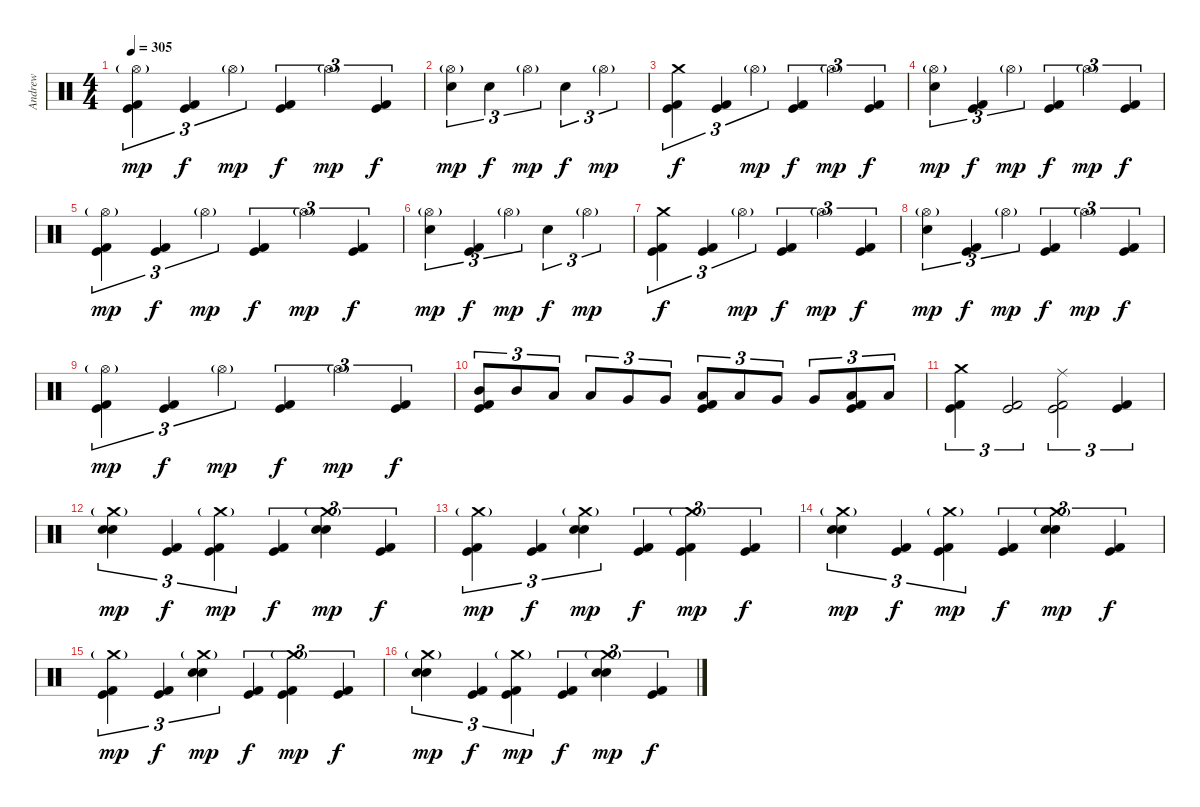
\track ("Andrew" "Andrew") {instrument percussion}
\staff {score}
\articulation defaults
\ts (4 4)
\tempo 305
\clef neutral
\ks c
("Hi-Hat (open)"{g} "Kick (hit)" "Kick (hit) 2").4{tu (3 2) dy mp} ("Kick (hit)" "Kick (hit) 2").4{tu (3 2) dy f} "Hi-Hat (open)"{g}.4{tu (3 2) dy mp} ("Kick (hit)" "Kick (hit) 2").4{tu (3 2) dy f} "Hi-Hat (open)"{g}.4{tu (3 2) dy mp} ("Kick (hit)" "Kick (hit) 2").4{tu (3 2) dy f} |
("Hi-Hat (open)"{g} "Snare (hit) 2").4{tu (3 2) dy mp} "Snare (hit) 2".4{tu (3 2) dy f} "Hi-Hat (open)"{g}.4{tu (3 2) dy mp} "Snare (hit) 2".4{tu (3 2) dy f} "Hi-Hat (open)"{g}.2{tu (3 2) dy mp} |
("Crash medium (hit)" "Kick (hit)" "Kick (hit) 2").4{tu (3 2) dy f} ("Kick (hit)" "Kick (hit) 2").4{tu (3 2)} "Hi-Hat (open)"{g}.4{tu (3 2) dy mp} ("Kick (hit)" "Kick (hit) 2").4{tu (3 2) dy f} "Hi-Hat (open)"{g}.4{tu (3 2) dy mp} ("Kick (hit)" "Kick (hit) 2").4{tu (3 2) dy f} |
("Hi-Hat (open)"{g} "Snare (hit) 2").4{tu (3 2) dy mp} ("Kick (hit)" "Kick (hit) 2").4{tu (3 2) dy f} "Hi-Hat (open)"{g}.4{tu (3 2) dy mp} ("Kick (hit)" "Kick (hit) 2").4{tu (3 2) dy f} "Hi-Hat (open)"{g}.4{tu (3 2) dy mp} ("Kick (hit)" "Kick (hit) 2").4{tu (3 2) dy f} |
("Hi-Hat (open)"{g} "Kick (hit)" "Kick (hit) 2").4{tu (3 2) dy mp} ("Kick (hit)" "Kick (hit) 2").4{tu (3 2) dy f} "Hi-Hat (open)"{g}.4{tu (3 2) dy mp} ("Kick (hit)" "Kick (hit) 2").4{tu (3 2) dy f} "Hi-Hat (open)"{g}.4{tu (3 2) dy mp} ("Kick (hit)" "Kick (hit) 2").4{tu (3 2) dy f} |
("Hi-Hat (open)"{g} "Snare (hit) 2").4{tu (3 2) dy mp} ("Kick (hit)" "Kick (hit) 2").4{tu (3 2) dy f} "Hi-Hat (open)"{g}.4{tu (3 2) dy mp} "Snare (hit) 2".4{tu (3 2) dy f} "Hi-Hat (open)"{g}.2{tu (3 2) dy mp} |
("Crash medium (hit)" "Kick (hit)" "Kick (hit) 2").4{tu (3 2) dy f} ("Kick (hit)" "Kick (hit) 2").4{tu (3 2)} "Hi-Hat (open)"{g}.4{tu (3 2) dy mp} ("Kick (hit)" "Kick (hit) 2").4{tu (3 2) dy f} "Hi-Hat (open)"{g}.4{tu (3 2) dy mp} ("Kick (hit)" "Kick (hit) 2").4{tu (3 2) dy f} |
("Hi-Hat (open)"{g} "Snare (hit) 2").4{tu (3 2) dy mp} ("Kick (hit)" "Kick (hit) 2").4{tu (3 2) dy f} "Hi-Hat (open)"{g}.4{tu (3 2) dy mp} ("Kick (hit)" "Kick (hit) 2").4{tu (3 2) dy f} "Hi-Hat (open)"{g}.4{tu (3 2) dy mp} ("Kick (hit)" "Kick (hit) 2").4{tu (3 2) dy f} |
("Hi-Hat (open)"{g} "Kick (hit)" "Kick (hit) 2").4{tu (3 2) dy mp} ("Kick (hit)" "Kick (hit) 2").4{tu (3 2) dy f} "Hi-Hat (open)"{g}.4{tu (3 2) dy mp} ("Kick (hit)" "Kick (hit) 2").4{tu (3 2) dy f} "Hi-Hat (open)"{g}.4{tu (3 2) dy mp} ("Kick (hit)" "Kick (hit) 2").4{tu (3 2) dy f} |
("Mid Tom (hit)" "Kick (hit)" "Kick (hit) 2").8{tu (3 2)} "Mid Tom (hit)".8{tu (3 2)} "Low Tom (hit)".8{tu (3 2)} "Low Tom (hit)".8{tu (3 2)} "Very Low Tom (hit)".8{tu (3 2)} "Very Low Tom (hit)".8{tu (3 2)} ("Low Floor Tom (hit)" "Kick (hit)" "Kick (hit) 2").8{tu (3 2)} "Low Floor Tom (hit)".8{tu (3 2)} "Very Low Tom (hit)".8{tu (3 2)} "Very Low Tom (hit)".8{tu (3 2)} ("Low Floor Tom (hit)" "Kick (hit)" "Kick (hit) 2").8{tu (3 2)} "Low Floor Tom (hit)".8{tu (3 2)} |
("Crash medium (hit)" "Kick (hit)" "Kick (hit) 2").4{tu (3 2)} ("Kick (hit)" "Kick (hit) 2").2{tu (3 2)} ("Ride (middle)" "Kick (hit)" "Kick (hit) 2").2{tu (3 2)} ("Kick (hit)" "Kick (hit) 2").4{tu (3 2)} |
("Crash medium (hit)"{g} "Snare (hit) 2" "Snare (hit) 2").4{tu (3 2) dy mp} ("Kick (hit)" "Kick (hit) 2").4{tu (3 2) dy f} ("Crash medium (hit)"{g} "Kick (hit)" "Kick (hit) 2").4{tu (3 2) dy mp} ("Kick (hit)" "Kick (hit) 2").4{tu (3 2) dy f} ("Crash medium (hit)"{g} "Snare (hit) 2" "Snare (hit) 2").4{tu (3 2) dy mp} ("Kick (hit)" "Kick (hit) 2").4{tu (3 2) dy f} |
("Crash medium (hit)"{g} "Kick (hit)" "Kick (hit) 2").4{tu (3 2) dy mp} ("Kick (hit)" "Kick (hit) 2").4{tu (3 2) dy f} ("Crash medium (hit)"{g} "Snare (hit) 2" "Snare (hit) 2").4{tu (3 2) dy mp} ("Kick (hit)" "Kick (hit) 2").4{tu (3 2) dy f} ("Crash medium (hit)"{g} "Kick (hit)" "Kick (hit) 2").4{tu (3 2) dy mp} ("Kick (hit)" "Kick (hit) 2").4{tu (3 2) dy f} |
("Crash medium (hit)"{g} "Snare (hit) 2" "Snare (hit) 2").4{tu (3 2) dy mp} ("Kick (hit)" "Kick (hit) 2").4{tu (3 2) dy f} ("Crash medium (hit)"{g} "Kick (hit)" "Kick (hit) 2").4{tu (3 2) dy mp} ("Kick (hit)" "Kick (hit) 2").4{tu (3 2) dy f} ("Crash medium (hit)"{g} "Snare (hit) 2" "Snare (hit) 2").4{tu (3 2) dy mp} ("Kick (hit)" "Kick (hit) 2").4{tu (3 2) dy f} |
("Crash medium (hit)"{g} "Kick (hit)" "Kick (hit) 2").4{tu (3 2) dy mp} ("Kick (hit)" "Kick (hit) 2").4{tu (3 2) dy f} ("Crash medium (hit)"{g} "Snare (hit) 2" "Snare (hit) 2").4{tu (3 2) dy mp} ("Kick (hit)" "Kick (hit) 2").4{tu (3 2) dy f} ("Crash medium (hit)"{g} "Kick (hit)" "Kick (hit) 2").4{tu (3 2) dy mp} ("Kick (hit)" "Kick (hit) 2").4{tu (3 2) dy f} |
("Crash medium (hit)"{g} "Snare (hit) 2" "Snare (hit) 2").4{tu (3 2) dy mp} ("Kick (hit)" "Kick (hit) 2").4{tu (3 2) dy f} ("Crash medium (hit)"{g} "Kick (hit)" "Kick (hit) 2").4{tu (3 2) dy mp} ("Kick (hit)" "Kick (hit) 2").4{tu (3 2) dy f} ("Crash medium (hit)"{g} "Snare (hit) 2" "Snare (hit) 2").4{tu (3 2) dy mp} ("Kick (hit)" "Kick (hit) 2").4{tu (3 2) dy f}
